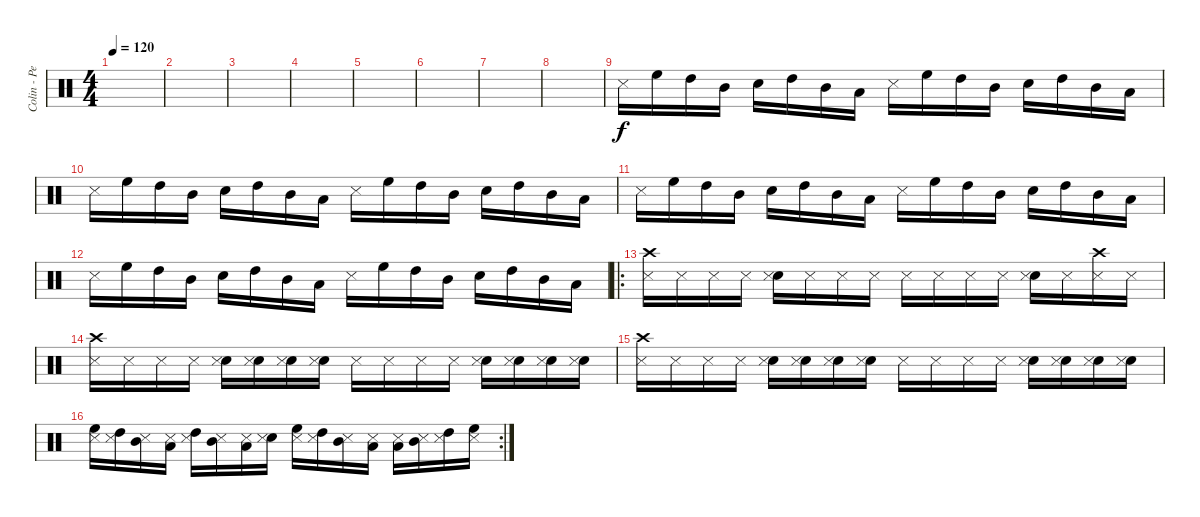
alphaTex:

\track ("Colin - Percussion" "Colin - Pe") {instrument percussion}
\staff {score}
\articulation defaults
\ts (4 4)
\tempo 120
\clef neutral
\ks c
|
|
|
|
|
|
|
|
"Metronome (hit)".16 "High Floor Tom (hit)".16 "High Tom (hit)".16 "Mid Tom (hit)".16 "Electric Snare (hit)".16 "High Tom (hit)".16 "Mid Tom (hit)".16 "Low Tom (hit)".16 "Metronome (hit)".16 "High Floor Tom (hit)".16 "High Tom (hit)".16 "Mid Tom (hit)".16 "Electric Snare (hit)".16 "High Tom (hit)".16 "Mid Tom (hit)".16 "Low Tom (hit)".16 |
"Metronome (hit)".16 "High Floor Tom (hit)".16 "High Tom (hit)".16 "Mid Tom (hit)".16 "Electric Snare (hit)".16 "High Tom (hit)".16 "Mid Tom (hit)".16 "Low Tom (hit)".16 "Metronome (hit)".16 "High Floor Tom (hit)".16 "High Tom (hit)".16 "Mid Tom (hit)".16 "Electric Snare (hit)".16 "High Tom (hit)".16 "Mid Tom (hit)".16 "Low Tom (hit)".16 |
"Metronome (hit)".16 "High Floor Tom (hit)".16 "High Tom (hit)".16 "Mid Tom (hit)".16 "Electric Snare (hit)".16 "High Tom (hit)".16 "Mid Tom (hit)".16 "Low Tom (hit)".16 "Metronome (hit)".16 "High Floor Tom (hit)".16 "High Tom (hit)".16 "Mid Tom (hit)".16 "Electric Snare (hit)".16 "High Tom (hit)".16 "Mid Tom (hit)".16 "Low Tom (hit)".16 |
"Metronome (hit)".16 "High Floor Tom (hit)".16 "High Tom (hit)".16 "Mid Tom (hit)".16 "Electric Snare (hit)".16 "High Tom (hit)".16 "Mid Tom (hit)".16 "Low Tom (hit)".16 "Metronome (hit)".16 "High Floor Tom (hit)".16 "High Tom (hit)".16 "Mid Tom (hit)".16 "Electric Snare (hit)".16 "High Tom (hit)".16 "Mid Tom (hit)".16 "Low Tom (hit)".16 |
\ro
("Crash high (hit)" "Metronome (hit)").16 "Metronome (hit)".16 "Metronome (hit)".16 "Metronome (hit)".16 ("Electric Snare (hit)" "Metronome (hit)").16 "Metronome (hit)".16 "Metronome (hit)".16 "Metronome (hit)".16 "Metronome (hit)".16 "Metronome (hit)".16 "Metronome (hit)".16 "Metronome (hit)".16 ("Electric Snare (hit)" "Metronome (hit)").16 "Metronome (hit)".16 ("Crash high (hit)" "Metronome (hit)").16 "Metronome (hit)".16 |
("Crash high (hit)" "Metronome (hit)").16 "Metronome (hit)".16 "Metronome (hit)".16 "Metronome (hit)".16 ("Electric Snare (hit)" "Metronome (hit)").16 ("Electric Snare (hit)" "Metronome (hit)").16 ("Electric Snare (hit)" "Metronome (hit)").16 ("Electric Snare (hit)" "Metronome (hit)").16 "Metronome (hit)".16 "Metronome (hit)".16 "Metronome (hit)".16 "Metronome (hit)".16 ("Electric Snare (hit)" "Metronome (hit)").16 ("Electric Snare (hit)" "Metronome (hit)").16 ("Electric Snare (hit)" "Metronome (hit)").16 ("Electric Snare (hit)" "Metronome (hit)").16 |
("Crash high (hit)" "Metronome (hit)").16 "Metronome (hit)".16 "Metronome (hit)".16 "Metronome (hit)".16 ("Electric Snare (hit)" "Metronome (hit)").16 ("Electric Snare (hit)" "Metronome (hit)").16 ("Electric Snare (hit)" "Metronome (hit)").16 ("Electric Snare (hit)" "Metronome (hit)").16 "Metronome (hit)".16 "Metronome (hit)".16 "Metronome (hit)".16 "Metronome (hit)".16 ("Electric Snare (hit)" "Metronome (hit)").16 ("Electric Snare (hit)" "Metronome (hit)").16 ("Electric Snare (hit)" "Metronome (hit)").16 ("Electric Snare (hit)" "Metronome (hit)").16 |
\rc 2
("High Floor Tom (hit)" "Metronome (hit)").16 ("High Tom (hit)" "Metronome (hit)").16 ("Mid Tom (hit)" "Metronome (hit)").16 ("Low Tom (hit)" "Metronome (hit)").16 ("High Tom (hit)" "Metronome (hit)").16 ("Mid Tom (hit)" "Metronome (hit)").16 ("Low Tom (hit)" "Metronome (hit)").16 ("Electric Snare (hit)" "Metronome (hit)").16 ("High Floor Tom (hit)" "Metronome (hit)").16 ("High Tom (hit)" "Metronome (hit)").16 ("Mid Tom (hit)" "Metronome (hit)").16 ("Low Tom (hit)" "Metronome (hit)").16 ("Low Tom (hit)" "Metronome (hit)").16 ("Mid Tom (hit)" "Metronome (hit)").16 ("High Tom (hit)" "Metronome (hit)").16 ("High Floor Tom (hit)" "Metronome (hit)").16
